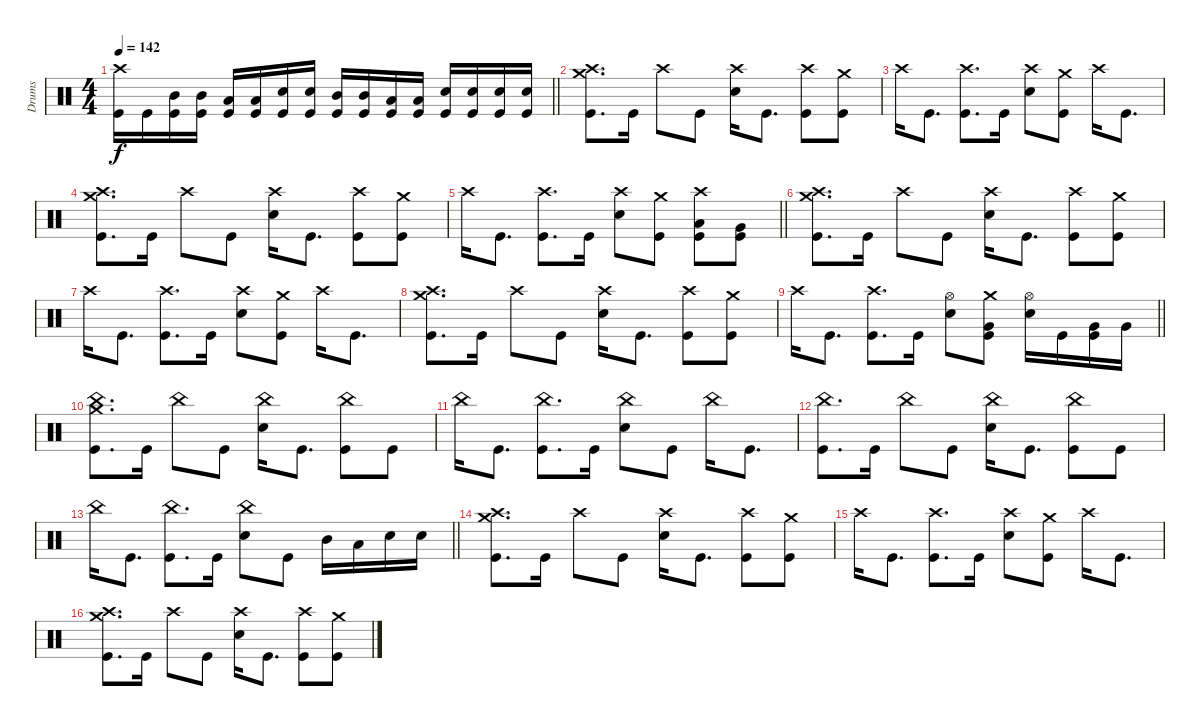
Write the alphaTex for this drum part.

\track ("Drums" "Drums") {instrument percussion}
\staff
\articulation defaults
\ts (4 4)
\tempo 142
\clef neutral
\barLineRight lightlight
\ks c
("Crash high (hit)" "Kick (hit)").16{dy f} "Kick (hit)".16 ("Mid Tom (hit)" "Kick (hit)").16 ("Mid Tom (hit)" "Kick (hit)").16 ("Low Tom (hit)" "Kick (hit)").16 ("Low Tom (hit)" "Kick (hit)").16 ("Electric Snare (hit)" "Kick (hit)").16 ("Electric Snare (hit)" "Kick (hit)").16 ("Mid Tom (hit)" "Kick (hit)").16 ("Mid Tom (hit)" "Kick (hit)").16 ("Low Tom (hit)" "Kick (hit)").16 ("Low Tom (hit)" "Kick (hit)").16 ("Electric Snare (hit)" "Kick (hit)").16 ("Electric Snare (hit)" "Kick (hit)").16 ("Electric Snare (hit)" "Kick (hit)").16 ("Electric Snare (hit)" "Kick (hit)").16 |
\section ("" "")
("Crash high (hit)" "Crash medium (hit)" "Kick (hit)").8{d} "Kick (hit)".16 "Crash high (hit)".8 "Kick (hit)".8 ("Crash high (hit)" "Electric Snare (hit)").16 "Kick (hit)".8{d} ("Crash high (hit)" "Kick (hit)").8 ("Crash medium (hit)" "Kick (hit)").8 |
"Crash high (hit)".16 "Kick (hit)".8{d} ("Crash high (hit)" "Kick (hit)").8{d} "Kick (hit)".16 ("Crash high (hit)" "Electric Snare (hit)").8 ("Crash medium (hit)" "Kick (hit)").8 "Crash high (hit)".16 "Kick (hit)".8{d} |
("Crash high (hit)" "Crash medium (hit)" "Kick (hit)").8{d} "Kick (hit)".16 "Crash high (hit)".8 "Kick (hit)".8 ("Crash high (hit)" "Electric Snare (hit)").16 "Kick (hit)".8{d} ("Crash high (hit)" "Kick (hit)").8 ("Crash medium (hit)" "Kick (hit)").8 |
\barLineRight lightlight "Crash high (hit)".16 "Kick (hit)".8{d}
("Crash high (hit)" "Kick (hit)").8{d} "Kick (hit)".16 ("Crash high (hit)" "Electric Snare (hit)").8 ("Crash medium (hit)" "Kick (hit)").8 ("Crash high (hit)" "Low Tom (hit)" "Kick (hit)").8 ("Very Low Tom (hit)" "Kick (hit)").8 |
("Crash high (hit)" "Crash medium (hit)" "Kick (hit)").8{d} "Kick (hit)".16 "Crash high (hit)".8 "Kick (hit)".8 ("Crash high (hit)" "Electric Snare (hit)").16 "Kick (hit)".8{d} ("Crash high (hit)" "Kick (hit)").8 ("Crash medium (hit)" "Kick (hit)").8 |
"Crash high (hit)".16 "Kick (hit)".8{d} ("Crash high (hit)" "Kick (hit)").8{d} "Kick (hit)".16 ("Crash high (hit)" "Electric Snare (hit)").8 ("Crash medium (hit)" "Kick (hit)").8 "Crash high (hit)".16 "Kick (hit)".8{d} |
("Crash high (hit)" "Crash medium (hit)" "Kick (hit)").8{d} "Kick (hit)".16 "Crash high (hit)".8 "Kick (hit)".8 ("Crash high (hit)" "Electric Snare (hit)").16 "Kick (hit)".8{d} ("Crash high (hit)" "Kick (hit)").8 ("Crash medium (hit)" "Kick (hit)").8 |
\barLineRight lightlight "Crash high (hit)".16 "Kick (hit)".8{d}
("Crash high (hit)" "Kick (hit)").8{d} "Kick (hit)".16 ("Hi-Hat (open)" "Electric Snare (hit)").8 ("Crash medium (hit)" "Very Low Tom (hit)" "Kick (hit)").8 ("Hi-Hat (open)" "Electric Snare (hit)").16 "Kick (hit)".16 ("Very Low Tom (hit)" "Kick (hit)").16 "Very Low Tom (hit)".16 |
("China (hit)" "Crash medium (hit)" "Kick (hit)").8{d} "Kick (hit)".16 "China (hit)".8 "Kick (hit)".8 ("China (hit)" "Electric Snare (hit)").16 "Kick (hit)".8{d} ("China (hit)" "Kick (hit)").8 "Kick (hit)".8 |
"China (hit)".16 "Kick (hit)".8{d} ("China (hit)" "Kick (hit)").8{d} "Kick (hit)".16 ("China (hit)" "Electric Snare (hit)").8 "Kick (hit)".8 "China (hit)".16 "Kick (hit)".8{d} |
("China (hit)" "Kick (hit)").8{d} "Kick (hit)".16 "China (hit)".8 "Kick (hit)".8 ("China (hit)" "Electric Snare (hit)").16 "Kick (hit)".8{d} ("China (hit)" "Kick (hit)").8 "Kick (hit)".8 |
\barLineRight lightlight "China (hit)".16 "Kick (hit)".8{d}
("China (hit)" "Kick (hit)").8{d} "Kick (hit)".16 ("China (hit)" "Electric Snare (hit)").8 "Kick (hit)".8 "Mid Tom (hit)".16 "Low Tom (hit)".16 "Electric Snare (hit)".16 "Electric Snare (hit)".16 |
("Crash high (hit)" "Crash medium (hit)" "Kick (hit)").8{d} "Kick (hit)".16 "Crash high (hit)".8 "Kick (hit)".8 ("Crash high (hit)" "Electric Snare (hit)").16 "Kick (hit)".8{d} ("Crash high (hit)" "Kick (hit)").8 ("Crash medium (hit)" "Kick (hit)").8 |
"Crash high (hit)".16 "Kick (hit)".8{d} ("Crash high (hit)" "Kick (hit)").8{d} "Kick (hit)".16 ("Crash high (hit)" "Electric Snare (hit)").8 ("Crash medium (hit)" "Kick (hit)").8 "Crash high (hit)".16 "Kick (hit)".8{d} |
("Crash high (hit)" "Crash medium (hit)" "Kick (hit)").8{d} "Kick (hit)".16 "Crash high (hit)".8 "Kick (hit)".8 ("Crash high (hit)" "Electric Snare (hit)").16 "Kick (hit)".8{d} ("Crash high (hit)" "Kick (hit)").8 ("Crash medium (hit)" "Kick (hit)").8
